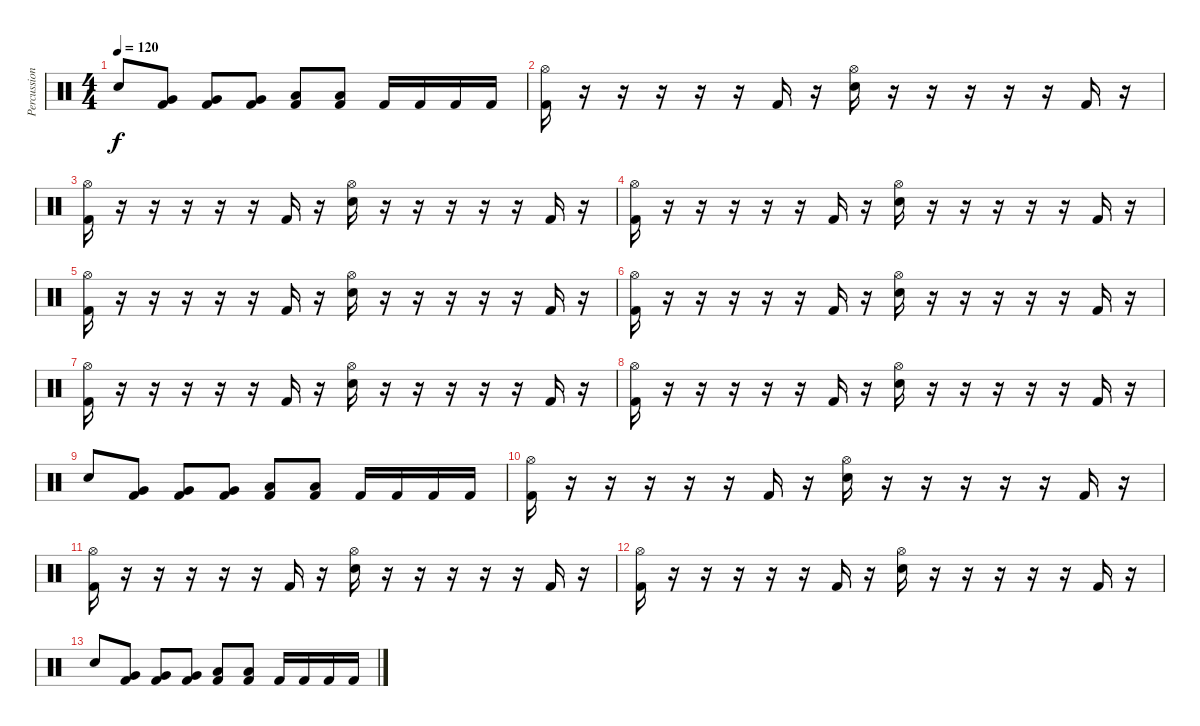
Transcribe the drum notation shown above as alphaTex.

\track ("Percussion" "Percussion") {instrument percussion}
\staff {score}
\articulation defaults
\ts (4 4)
\tempo 120
\clef neutral
\ks c "Electric Snare (hit)".8{dy f}
("Very Low Tom (hit)" "Kick (hit) 2").8 ("Very Low Tom (hit)" "Kick (hit) 2").8 ("Very Low Tom (hit)" "Kick (hit) 2").8 ("Low Floor Tom (hit)" "Kick (hit) 2").8 ("Low Floor Tom (hit)" "Kick (hit) 2").8 "Kick (hit) 2".16 "Kick (hit) 2".16 "Kick (hit) 2".16 "Kick (hit) 2".16 |
("Hi-Hat (open)" "Kick (hit) 2").16 r.16 r.16 r.16 r.16 r.16 "Kick (hit) 2".16 r.16 ("Hi-Hat (open)" "Electric Snare (hit)").16 r.16 r.16 r.16 r.16 r.16 "Kick (hit) 2".16 r.16 |
("Hi-Hat (open)" "Kick (hit) 2").16 r.16 r.16 r.16 r.16 r.16 "Kick (hit) 2".16 r.16 ("Hi-Hat (open)" "Electric Snare (hit)").16 r.16 r.16 r.16 r.16 r.16 "Kick (hit) 2".16 r.16 |
("Hi-Hat (open)" "Kick (hit) 2").16 r.16 r.16 r.16 r.16 r.16 "Kick (hit) 2".16 r.16 ("Hi-Hat (open)" "Electric Snare (hit)").16 r.16 r.16 r.16 r.16 r.16 "Kick (hit) 2".16 r.16 |
("Hi-Hat (open)" "Kick (hit) 2").16 r.16 r.16 r.16 r.16 r.16 "Kick (hit) 2".16 r.16 ("Hi-Hat (open)" "Electric Snare (hit)").16 r.16 r.16 r.16 r.16 r.16 "Kick (hit) 2".16 r.16 |
("Hi-Hat (open)" "Kick (hit) 2").16 r.16 r.16 r.16 r.16 r.16 "Kick (hit) 2".16 r.16 ("Hi-Hat (open)" "Electric Snare (hit)").16 r.16 r.16 r.16 r.16 r.16 "Kick (hit) 2".16 r.16 |
("Hi-Hat (open)" "Kick (hit) 2").16 r.16 r.16 r.16 r.16 r.16 "Kick (hit) 2".16 r.16 ("Hi-Hat (open)" "Electric Snare (hit)").16 r.16 r.16 r.16 r.16 r.16 "Kick (hit) 2".16 r.16 |
("Hi-Hat (open)" "Kick (hit) 2").16 r.16 r.16 r.16 r.16 r.16 "Kick (hit) 2".16 r.16 ("Hi-Hat (open)" "Electric Snare (hit)").16 r.16 r.16 r.16 r.16 r.16 "Kick (hit) 2".16 r.16 |
"Electric Snare (hit)".8 ("Very Low Tom (hit)" "Kick (hit) 2").8 ("Very Low Tom (hit)" "Kick (hit) 2").8 ("Very Low Tom (hit)" "Kick (hit) 2").8 ("Low Floor Tom (hit)" "Kick (hit) 2").8 ("Low Floor Tom (hit)" "Kick (hit) 2").8 "Kick (hit) 2".16 "Kick (hit) 2".16 "Kick (hit) 2".16 "Kick (hit) 2".16 |
("Hi-Hat (open)" "Kick (hit) 2").16 r.16 r.16 r.16 r.16 r.16 "Kick (hit) 2".16 r.16 ("Hi-Hat (open)" "Electric Snare (hit)").16 r.16 r.16 r.16 r.16 r.16 "Kick (hit) 2".16 r.16 |
("Hi-Hat (open)" "Kick (hit) 2").16 r.16 r.16 r.16 r.16 r.16 "Kick (hit) 2".16 r.16 ("Hi-Hat (open)" "Electric Snare (hit)").16 r.16 r.16 r.16 r.16 r.16 "Kick (hit) 2".16 r.16 |
("Hi-Hat (open)" "Kick (hit) 2").16 r.16 r.16 r.16 r.16 r.16 "Kick (hit) 2".16 r.16 ("Hi-Hat (open)" "Electric Snare (hit)").16 r.16 r.16 r.16 r.16 r.16 "Kick (hit) 2".16 r.16 |
"Electric Snare (hit)".8 ("Very Low Tom (hit)" "Kick (hit) 2").8 ("Very Low Tom (hit)" "Kick (hit) 2").8 ("Very Low Tom (hit)" "Kick (hit) 2").8 ("Low Floor Tom (hit)" "Kick (hit) 2").8 ("Low Floor Tom (hit)" "Kick (hit) 2").8 "Kick (hit) 2".16 "Kick (hit) 2".16 "Kick (hit) 2".16 "Kick (hit) 2".16
